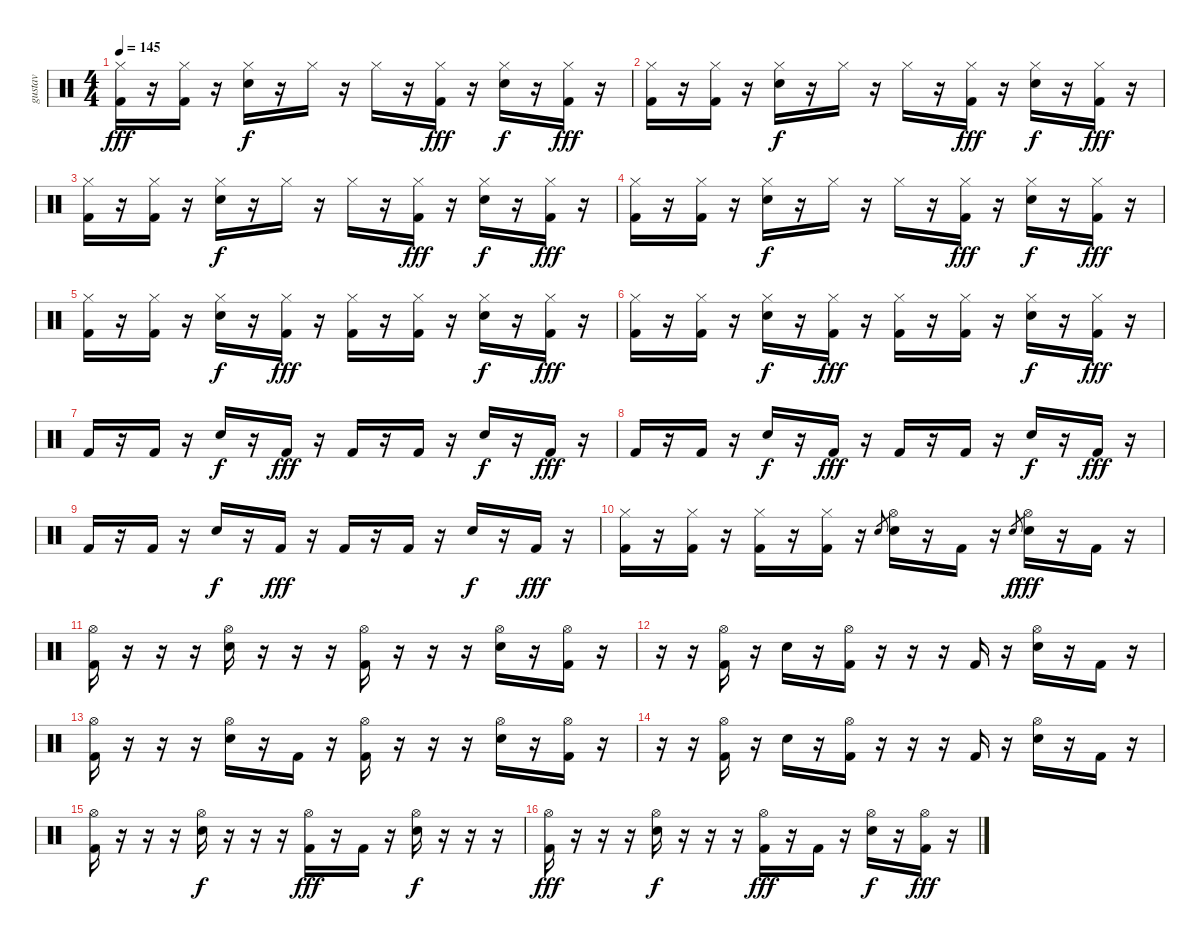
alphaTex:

\track ("gustav" "gustav") {instrument percussion}
\staff {score}
\articulation defaults
\ts (4 4)
\tempo 145
\clef neutral
\ks c
("Hi-Hat (closed)" "Kick (hit) 2").16{dy fff} r.16 ("Hi-Hat (closed)" "Kick (hit) 2").16 r.16 ("Hi-Hat (closed)" "Electric Snare (hit)").16{dy f} r.16 "Hi-Hat (closed)".16 r.16 "Hi-Hat (closed)".16 r.16 ("Hi-Hat (closed)" "Kick (hit) 2").16{dy fff} r.16 ("Hi-Hat (closed)" "Electric Snare (hit)").16{dy f} r.16 ("Hi-Hat (closed)" "Kick (hit) 2").16{dy fff} r.16 |
("Hi-Hat (closed)" "Kick (hit) 2").16 r.16 ("Hi-Hat (closed)" "Kick (hit) 2").16 r.16 ("Hi-Hat (closed)" "Electric Snare (hit)").16{dy f} r.16 "Hi-Hat (closed)".16 r.16 "Hi-Hat (closed)".16 r.16 ("Hi-Hat (closed)" "Kick (hit) 2").16{dy fff} r.16 ("Hi-Hat (closed)" "Electric Snare (hit)").16{dy f} r.16 ("Hi-Hat (closed)" "Kick (hit) 2").16{dy fff} r.16 |
("Hi-Hat (closed)" "Kick (hit) 2").16 r.16 ("Hi-Hat (closed)" "Kick (hit) 2").16 r.16 ("Hi-Hat (closed)" "Electric Snare (hit)").16{dy f} r.16 "Hi-Hat (closed)".16 r.16 "Hi-Hat (closed)".16 r.16 ("Hi-Hat (closed)" "Kick (hit) 2").16{dy fff} r.16 ("Hi-Hat (closed)" "Electric Snare (hit)").16{dy f} r.16 ("Hi-Hat (closed)" "Kick (hit) 2").16{dy fff} r.16 |
("Hi-Hat (closed)" "Kick (hit) 2").16 r.16 ("Hi-Hat (closed)" "Kick (hit) 2").16 r.16 ("Hi-Hat (closed)" "Electric Snare (hit)").16{dy f} r.16 "Hi-Hat (closed)".16 r.16 "Hi-Hat (closed)".16 r.16 ("Hi-Hat (closed)" "Kick (hit) 2").16{dy fff} r.16 ("Hi-Hat (closed)" "Electric Snare (hit)").16{dy f} r.16 ("Hi-Hat (closed)" "Kick (hit) 2").16{dy fff} r.16 |
("Hi-Hat (closed)" "Kick (hit) 2").16 r.16 ("Hi-Hat (closed)" "Kick (hit) 2").16 r.16 ("Hi-Hat (closed)" "Electric Snare (hit)").16{dy f} r.16 ("Hi-Hat (closed)" "Kick (hit) 2").16{dy fff} r.16 ("Hi-Hat (closed)" "Kick (hit) 2").16 r.16 ("Hi-Hat (closed)" "Kick (hit) 2").16 r.16 ("Hi-Hat (closed)" "Electric Snare (hit)").16{dy f} r.16 ("Hi-Hat (closed)" "Kick (hit) 2").16{dy fff} r.16 |
("Hi-Hat (closed)" "Kick (hit) 2").16 r.16 ("Hi-Hat (closed)" "Kick (hit) 2").16 r.16 ("Hi-Hat (closed)" "Electric Snare (hit)").16{dy f} r.16 ("Hi-Hat (closed)" "Kick (hit) 2").16{dy fff} r.16 ("Hi-Hat (closed)" "Kick (hit) 2").16 r.16 ("Hi-Hat (closed)" "Kick (hit) 2").16 r.16 ("Hi-Hat (closed)" "Electric Snare (hit)").16{dy f} r.16 ("Hi-Hat (closed)" "Kick (hit) 2").16{dy fff} r.16 |
"Kick (hit) 2".16 r.16 "Kick (hit) 2".16 r.16 "Electric Snare (hit)".16{dy f} r.16 "Kick (hit) 2".16{dy fff} r.16 "Kick (hit) 2".16 r.16 "Kick (hit) 2".16 r.16 "Electric Snare (hit)".16{dy f} r.16 "Kick (hit) 2".16{dy fff} r.16 |
"Kick (hit) 2".16 r.16 "Kick (hit) 2".16 r.16 "Electric Snare (hit)".16{dy f} r.16 "Kick (hit) 2".16{dy fff} r.16 "Kick (hit) 2".16 r.16 "Kick (hit) 2".16 r.16 "Electric Snare (hit)".16{dy f} r.16 "Kick (hit) 2".16{dy fff} r.16 |
"Kick (hit) 2".16 r.16 "Kick (hit) 2".16 r.16 "Electric Snare (hit)".16{dy f} r.16 "Kick (hit) 2".16{dy fff} r.16 "Kick (hit) 2".16 r.16 "Kick (hit) 2".16 r.16 "Electric Snare (hit)".16{dy f} r.16 "Kick (hit) 2".16{dy fff} r.16 |
("Hi-Hat (closed)" "Kick (hit) 2").16 r.16 ("Hi-Hat (closed)" "Kick (hit) 2").16 r.16 ("Hi-Hat (closed)" "Kick (hit) 2").16 r.16 ("Hi-Hat (closed)" "Kick (hit) 2").16 r.16 "Electric Snare (hit)".8{gr} ("Hi-Hat (open)" "Electric Snare (hit)").16 r.16 "Kick (hit) 2".16 r.16 "Electric Snare (hit)".8{gr dy f} ("Hi-Hat (open)" "Electric Snare (hit)").16{dy fff} r.16 "Kick (hit) 2".16 r.16 |
("Hi-Hat (open)" "Kick (hit) 2").16 r.16 r.16 r.16 ("Hi-Hat (open)" "Electric Snare (hit)").16 r.16 r.16 r.16 ("Hi-Hat (open)" "Kick (hit) 2").16 r.16 r.16 r.16 ("Hi-Hat (open)" "Electric Snare (hit)").16 r.16 ("Hi-Hat (open)" "Kick (hit) 2").16 r.16 |
r.16 r.16 ("Hi-Hat (open)" "Kick (hit) 2").16 r.16 "Electric Snare (hit)".16 r.16 ("Hi-Hat (open)" "Kick (hit) 2").16 r.16 r.16 r.16 "Kick (hit) 2".16 r.16 ("Hi-Hat (open)" "Electric Snare (hit)").16 r.16 "Kick (hit) 2".16 r.16 |
("Hi-Hat (open)" "Kick (hit) 2").16 r.16 r.16 r.16 ("Hi-Hat (open)" "Electric Snare (hit)").16 r.16 "Kick (hit) 2".16 r.16 ("Hi-Hat (open)" "Kick (hit) 2").16 r.16 r.16 r.16 ("Hi-Hat (open)" "Electric Snare (hit)").16 r.16 ("Hi-Hat (open)" "Kick (hit) 2").16 r.16 |
r.16 r.16 ("Hi-Hat (open)" "Kick (hit) 2").16 r.16 "Electric Snare (hit)".16 r.16 ("Hi-Hat (open)" "Kick (hit) 2").16 r.16 r.16 r.16 "Kick (hit) 2".16 r.16 ("Hi-Hat (open)" "Electric Snare (hit)").16 r.16 "Kick (hit) 2".16 r.16 |
("Hi-Hat (open)" "Kick (hit) 2").16 r.16 r.16 r.16 ("Hi-Hat (open)" "Electric Snare (hit)").16{dy f} r.16 r.16 r.16 ("Hi-Hat (open)" "Kick (hit) 2").16{dy fff} r.16 "Kick (hit) 2".16 r.16 ("Hi-Hat (open)" "Electric Snare (hit)").16{dy f} r.16 r.16 r.16 |
("Hi-Hat (open)" "Kick (hit) 2").16{dy fff} r.16 r.16 r.16 ("Hi-Hat (open)" "Electric Snare (hit)").16{dy f} r.16 r.16 r.16 ("Hi-Hat (open)" "Kick (hit) 2").16{dy fff} r.16 "Kick (hit) 2".16 r.16 ("Hi-Hat (open)" "Electric Snare (hit)").16{dy f} r.16 ("Hi-Hat (open)" "Kick (hit) 2").16{dy fff} r.16
